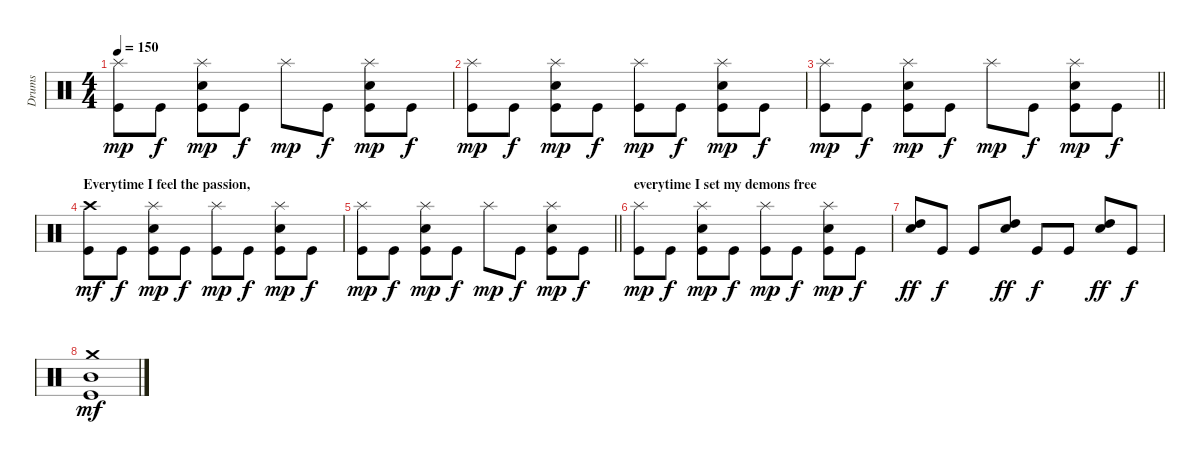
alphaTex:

\track ("Drums" "Drums") {instrument percussion}
\staff {score}
\articulation defaults
\ts (4 4)
\tempo 150
\clef neutral
\ks c
("Splash (hit)" "Kick (hit)").8{dy mp} "Kick (hit)".8{dy f} ("Splash (hit)" "Snare (hit) 2" "Kick (hit)").8{dy mp} "Kick (hit)".8{dy f} "Splash (hit)".8{dy mp} "Kick (hit)".8{dy f} ("Splash (hit)" "Snare (hit) 2" "Kick (hit)").8{dy mp} "Kick (hit)".8{dy f} |
("Splash (hit)" "Kick (hit)").8{dy mp} "Kick (hit)".8{dy f} ("Splash (hit)" "Snare (hit) 2" "Kick (hit)").8{dy mp} "Kick (hit)".8{dy f} ("Splash (hit)" "Kick (hit)").8{dy mp} "Kick (hit)".8{dy f} ("Splash (hit)" "Snare (hit) 2" "Kick (hit)").8{dy mp} "Kick (hit)".8{dy f} |
\barLineRight lightlight
("Splash (hit)" "Kick (hit)").8{dy mp} "Kick (hit)".8{dy f} ("Splash (hit)" "Snare (hit) 2" "Kick (hit)").8{dy mp} "Kick (hit)".8{dy f} "Splash (hit)".8{dy mp} "Kick (hit)".8{dy f} ("Splash (hit)" "Snare (hit) 2" "Kick (hit)").8{dy mp} "Kick (hit)".8{dy f} |
\section ("" "Everytime I feel the passion,")
("Crash high (hit)" "Kick (hit)").8{dy mf} "Kick (hit)".8{dy f} ("Splash (hit)" "Snare (hit) 2" "Kick (hit)").8{dy mp} "Kick (hit)".8{dy f} ("Splash (hit)" "Kick (hit)").8{dy mp} "Kick (hit)".8{dy f} ("Splash (hit)" "Snare (hit) 2" "Kick (hit)").8{dy mp} "Kick (hit)".8{dy f} |
\barLineRight lightlight
("Splash (hit)" "Kick (hit)").8{dy mp} "Kick (hit)".8{dy f} ("Splash (hit)" "Snare (hit) 2" "Kick (hit)").8{dy mp} "Kick (hit)".8{dy f} "Splash (hit)".8{dy mp} "Kick (hit)".8{dy f} ("Splash (hit)" "Snare (hit) 2" "Kick (hit)").8{dy mp} "Kick (hit)".8{dy f} |
\section ("" "everytime I set my demons free")
("Splash (hit)" "Kick (hit)").8{dy mp} "Kick (hit)".8{dy f} ("Splash (hit)" "Snare (hit) 2" "Kick (hit)").8{dy mp} "Kick (hit)".8{dy f} ("Splash (hit)" "Kick (hit)").8{dy mp} "Kick (hit)".8{dy f} ("Splash (hit)" "Snare (hit) 2" "Kick (hit)").8{dy mp} "Kick (hit)".8{dy f} |
("Snare (hit) 2" "High Tom (hit)").8{dy ff} "Kick (hit)".8{dy f} "Kick (hit)".8 ("Snare (hit) 2" "High Tom (hit)").8{dy ff} "Kick (hit)".8{dy f} "Kick (hit)".8 ("Snare (hit) 2" "High Tom (hit)").8{dy ff} "Kick (hit)".8{dy f} |
("Crash medium (hit)" "Mid Tom (hit)" "Kick (hit)").1{dy mf}
